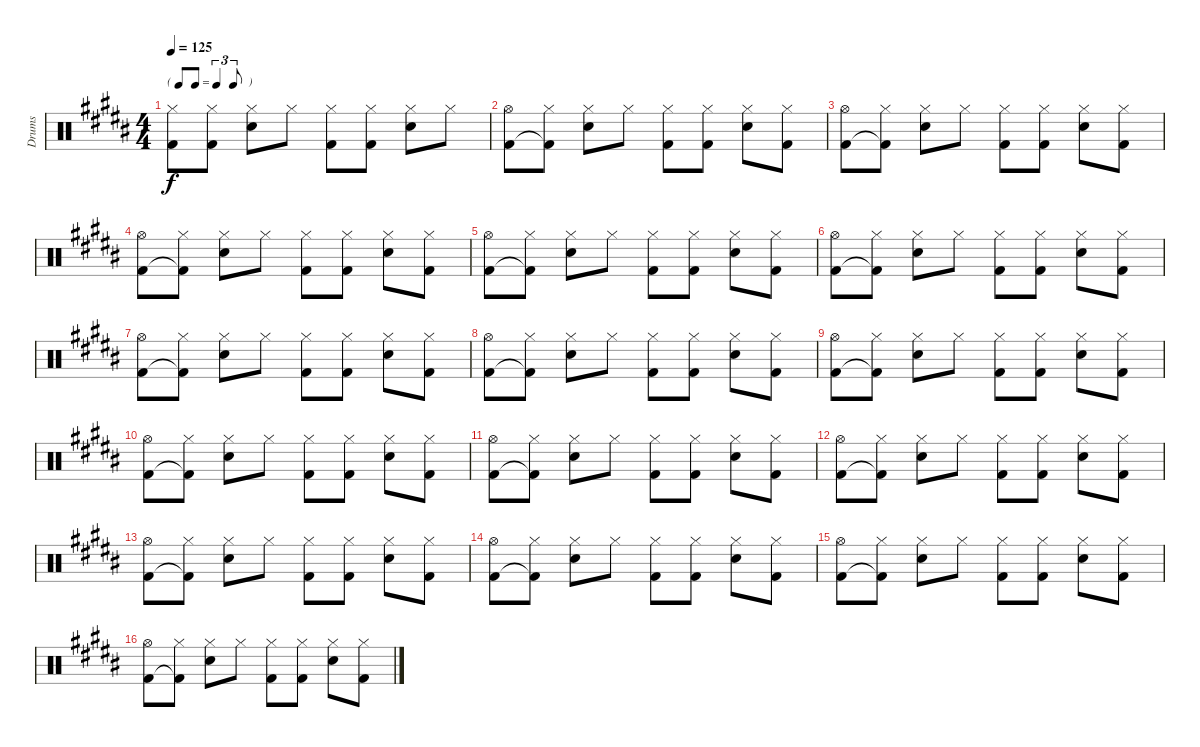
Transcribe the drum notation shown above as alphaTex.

\track ("Drums" "Drums") {instrument percussion}
\staff {score}
\articulation defaults
\ts (4 4)
\tf triplet8th
\tempo 125
\clef neutral
\ks b
("Hi-Hat (closed)" "Kick (hit) 2").8{dy f} ("Hi-Hat (closed)" "Kick (hit) 2").8 ("Hi-Hat (closed)" "Snare (hit) 2").8 "Hi-Hat (closed)".8 ("Hi-Hat (closed)" "Kick (hit) 2").8 ("Hi-Hat (closed)" "Kick (hit) 2").8 ("Hi-Hat (closed)" "Snare (hit) 2").8 "Hi-Hat (closed)".8 |
("Hi-Hat (open)" "Kick (hit) 2").8 ("Hi-Hat (closed)" "Kick (hit) 2"{t}).8 ("Hi-Hat (closed)" "Snare (hit) 2").8 "Hi-Hat (closed)".8 ("Hi-Hat (closed)" "Kick (hit) 2").8 ("Hi-Hat (closed)" "Kick (hit) 2").8 ("Hi-Hat (closed)" "Snare (hit) 2").8 ("Hi-Hat (closed)" "Kick (hit) 2").8 |
("Hi-Hat (open)" "Kick (hit) 2").8 ("Hi-Hat (closed)" "Kick (hit) 2"{t}).8 ("Hi-Hat (closed)" "Snare (hit) 2").8 "Hi-Hat (closed)".8 ("Hi-Hat (closed)" "Kick (hit) 2").8 ("Hi-Hat (closed)" "Kick (hit) 2").8 ("Hi-Hat (closed)" "Snare (hit) 2").8 ("Hi-Hat (closed)" "Kick (hit) 2").8 |
("Hi-Hat (open)" "Kick (hit) 2").8 ("Hi-Hat (closed)" "Kick (hit) 2"{t}).8 ("Hi-Hat (closed)" "Snare (hit) 2").8 "Hi-Hat (closed)".8 ("Hi-Hat (closed)" "Kick (hit) 2").8 ("Hi-Hat (closed)" "Kick (hit) 2").8 ("Hi-Hat (closed)" "Snare (hit) 2").8 ("Hi-Hat (closed)" "Kick (hit) 2").8 |
("Hi-Hat (open)" "Kick (hit) 2").8 ("Hi-Hat (closed)" "Kick (hit) 2"{t}).8 ("Hi-Hat (closed)" "Snare (hit) 2").8 "Hi-Hat (closed)".8 ("Hi-Hat (closed)" "Kick (hit) 2").8 ("Hi-Hat (closed)" "Kick (hit) 2").8 ("Hi-Hat (closed)" "Snare (hit) 2").8 ("Hi-Hat (closed)" "Kick (hit) 2").8 |
("Hi-Hat (open)" "Kick (hit) 2").8 ("Hi-Hat (closed)" "Kick (hit) 2"{t}).8 ("Hi-Hat (closed)" "Snare (hit) 2").8 "Hi-Hat (closed)".8 ("Hi-Hat (closed)" "Kick (hit) 2").8 ("Hi-Hat (closed)" "Kick (hit) 2").8 ("Hi-Hat (closed)" "Snare (hit) 2").8 ("Hi-Hat (closed)" "Kick (hit) 2").8 |
("Hi-Hat (open)" "Kick (hit) 2").8 ("Hi-Hat (closed)" "Kick (hit) 2"{t}).8 ("Hi-Hat (closed)" "Snare (hit) 2").8 "Hi-Hat (closed)".8 ("Hi-Hat (closed)" "Kick (hit) 2").8 ("Hi-Hat (closed)" "Kick (hit) 2").8 ("Hi-Hat (closed)" "Snare (hit) 2").8 ("Hi-Hat (closed)" "Kick (hit) 2").8 |
("Hi-Hat (open)" "Kick (hit) 2").8 ("Hi-Hat (closed)" "Kick (hit) 2"{t}).8 ("Hi-Hat (closed)" "Snare (hit) 2").8 "Hi-Hat (closed)".8 ("Hi-Hat (closed)" "Kick (hit) 2").8 ("Hi-Hat (closed)" "Kick (hit) 2").8 ("Hi-Hat (closed)" "Snare (hit) 2").8 ("Hi-Hat (closed)" "Kick (hit) 2").8 |
("Hi-Hat (open)" "Kick (hit) 2").8 ("Hi-Hat (closed)" "Kick (hit) 2"{t}).8 ("Hi-Hat (closed)" "Snare (hit) 2").8 "Hi-Hat (closed)".8 ("Hi-Hat (closed)" "Kick (hit) 2").8 ("Hi-Hat (closed)" "Kick (hit) 2").8 ("Hi-Hat (closed)" "Snare (hit) 2").8 ("Hi-Hat (closed)" "Kick (hit) 2").8 |
("Hi-Hat (open)" "Kick (hit) 2").8 ("Hi-Hat (closed)" "Kick (hit) 2"{t}).8 ("Hi-Hat (closed)" "Snare (hit) 2").8 "Hi-Hat (closed)".8 ("Hi-Hat (closed)" "Kick (hit) 2").8 ("Hi-Hat (closed)" "Kick (hit) 2").8 ("Hi-Hat (closed)" "Snare (hit) 2").8 ("Hi-Hat (closed)" "Kick (hit) 2").8 |
("Hi-Hat (open)" "Kick (hit) 2").8 ("Hi-Hat (closed)" "Kick (hit) 2"{t}).8 ("Hi-Hat (closed)" "Snare (hit) 2").8 "Hi-Hat (closed)".8 ("Hi-Hat (closed)" "Kick (hit) 2").8 ("Hi-Hat (closed)" "Kick (hit) 2").8 ("Hi-Hat (closed)" "Snare (hit) 2").8 ("Hi-Hat (closed)" "Kick (hit) 2").8 |
("Hi-Hat (open)" "Kick (hit) 2").8 ("Hi-Hat (closed)" "Kick (hit) 2"{t}).8 ("Hi-Hat (closed)" "Snare (hit) 2").8 "Hi-Hat (closed)".8 ("Hi-Hat (closed)" "Kick (hit) 2").8 ("Hi-Hat (closed)" "Kick (hit) 2").8 ("Hi-Hat (closed)" "Snare (hit) 2").8 ("Hi-Hat (closed)" "Kick (hit) 2").8 |
("Hi-Hat (open)" "Kick (hit) 2").8 ("Hi-Hat (closed)" "Kick (hit) 2"{t}).8 ("Hi-Hat (closed)" "Snare (hit) 2").8 "Hi-Hat (closed)".8 ("Hi-Hat (closed)" "Kick (hit) 2").8 ("Hi-Hat (closed)" "Kick (hit) 2").8 ("Hi-Hat (closed)" "Snare (hit) 2").8 ("Hi-Hat (closed)" "Kick (hit) 2").8 |
("Hi-Hat (open)" "Kick (hit) 2").8 ("Hi-Hat (closed)" "Kick (hit) 2"{t}).8 ("Hi-Hat (closed)" "Snare (hit) 2").8 "Hi-Hat (closed)".8 ("Hi-Hat (closed)" "Kick (hit) 2").8 ("Hi-Hat (closed)" "Kick (hit) 2").8 ("Hi-Hat (closed)" "Snare (hit) 2").8 ("Hi-Hat (closed)" "Kick (hit) 2").8 |
("Hi-Hat (open)" "Kick (hit) 2").8 ("Hi-Hat (closed)" "Kick (hit) 2"{t}).8 ("Hi-Hat (closed)" "Snare (hit) 2").8 "Hi-Hat (closed)".8 ("Hi-Hat (closed)" "Kick (hit) 2").8 ("Hi-Hat (closed)" "Kick (hit) 2").8 ("Hi-Hat (closed)" "Snare (hit) 2").8 ("Hi-Hat (closed)" "Kick (hit) 2").8 |
("Hi-Hat (open)" "Kick (hit) 2").8 ("Hi-Hat (closed)" "Kick (hit) 2"{t}).8 ("Hi-Hat (closed)" "Snare (hit) 2").8 "Hi-Hat (closed)".8 ("Hi-Hat (closed)" "Kick (hit) 2").8 ("Hi-Hat (closed)" "Kick (hit) 2").8 ("Hi-Hat (closed)" "Snare (hit) 2").8 ("Hi-Hat (closed)" "Kick (hit) 2").8
